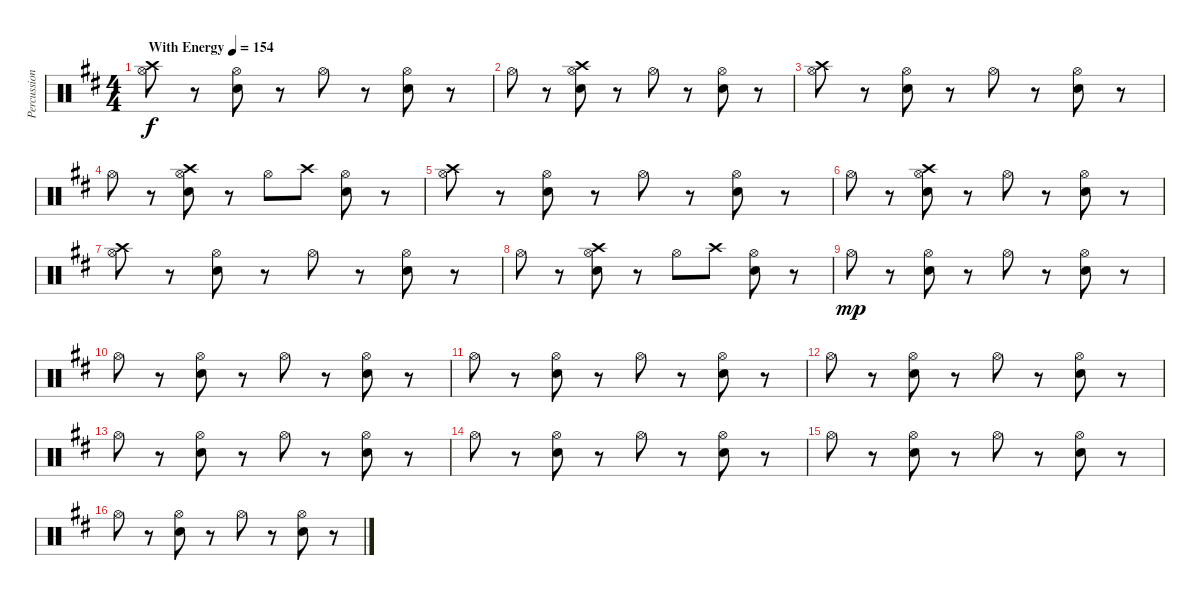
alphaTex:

\track ("Percussion (Mike Felumlee" "Percussion") {instrument percussion}
\staff {score}
\articulation defaults
\ts (4 4)
\tempo (154 "With Energy")
\clef neutral
\ks bminor
("Hi-Hat (open)" "Crash high (hit)").8{dy f} r.8 ("Hi-Hat (open)" "Electric Snare (hit)").8 r.8 "Hi-Hat (open)".8 r.8 ("Hi-Hat (open)" "Electric Snare (hit)").8 r.8 |
"Hi-Hat (open)".8 r.8 ("Hi-Hat (open)" "Electric Snare (hit)" "Crash high (hit)").8 r.8 "Hi-Hat (open)".8 r.8 ("Hi-Hat (open)" "Electric Snare (hit)").8 r.8 |
("Hi-Hat (open)" "Crash high (hit)").8 r.8 ("Hi-Hat (open)" "Electric Snare (hit)").8 r.8 "Hi-Hat (open)".8 r.8 ("Hi-Hat (open)" "Electric Snare (hit)").8 r.8 |
"Hi-Hat (open)".8 r.8 ("Hi-Hat (open)" "Electric Snare (hit)" "Crash high (hit)").8 r.8 "Hi-Hat (open)".8 "Crash high (hit)".8 ("Hi-Hat (open)" "Electric Snare (hit)").8 r.8 |
("Hi-Hat (open)" "Crash high (hit)").8 r.8 ("Hi-Hat (open)" "Electric Snare (hit)").8 r.8 "Hi-Hat (open)".8 r.8 ("Hi-Hat (open)" "Electric Snare (hit)").8 r.8 |
"Hi-Hat (open)".8 r.8 ("Hi-Hat (open)" "Electric Snare (hit)" "Crash high (hit)").8 r.8 "Hi-Hat (open)".8 r.8 ("Hi-Hat (open)" "Electric Snare (hit)").8 r.8 |
("Hi-Hat (open)" "Crash high (hit)").8 r.8 ("Hi-Hat (open)" "Electric Snare (hit)").8 r.8 "Hi-Hat (open)".8 r.8 ("Hi-Hat (open)" "Electric Snare (hit)").8 r.8 |
"Hi-Hat (open)".8 r.8 ("Hi-Hat (open)" "Electric Snare (hit)" "Crash high (hit)").8 r.8 "Hi-Hat (open)".8 "Crash high (hit)".8 ("Hi-Hat (open)" "Electric Snare (hit)").8 r.8 |
"Hi-Hat (open)".8{dy mp} r.8 ("Hi-Hat (open)" "Electric Snare (hit)").8 r.8 "Hi-Hat (open)".8 r.8 ("Hi-Hat (open)" "Electric Snare (hit)").8 r.8 |
"Hi-Hat (open)".8 r.8 ("Hi-Hat (open)" "Electric Snare (hit)").8 r.8 "Hi-Hat (open)".8 r.8 ("Hi-Hat (open)" "Electric Snare (hit)").8 r.8 |
"Hi-Hat (open)".8 r.8 ("Hi-Hat (open)" "Electric Snare (hit)").8 r.8 "Hi-Hat (open)".8 r.8 ("Hi-Hat (open)" "Electric Snare (hit)").8 r.8 |
"Hi-Hat (open)".8 r.8 ("Hi-Hat (open)" "Electric Snare (hit)").8 r.8 "Hi-Hat (open)".8 r.8 ("Hi-Hat (open)" "Electric Snare (hit)").8 r.8 |
"Hi-Hat (open)".8 r.8 ("Hi-Hat (open)" "Electric Snare (hit)").8 r.8 "Hi-Hat (open)".8 r.8 ("Hi-Hat (open)" "Electric Snare (hit)").8 r.8 |
"Hi-Hat (open)".8 r.8 ("Hi-Hat (open)" "Electric Snare (hit)").8 r.8 "Hi-Hat (open)".8 r.8 ("Hi-Hat (open)" "Electric Snare (hit)").8 r.8 |
"Hi-Hat (open)".8 r.8 ("Hi-Hat (open)" "Electric Snare (hit)").8 r.8 "Hi-Hat (open)".8 r.8 ("Hi-Hat (open)" "Electric Snare (hit)").8 r.8 |
"Hi-Hat (open)".8 r.8 ("Hi-Hat (open)" "Electric Snare (hit)").8 r.8 "Hi-Hat (open)".8 r.8 ("Hi-Hat (open)" "Electric Snare (hit)").8 r.8
